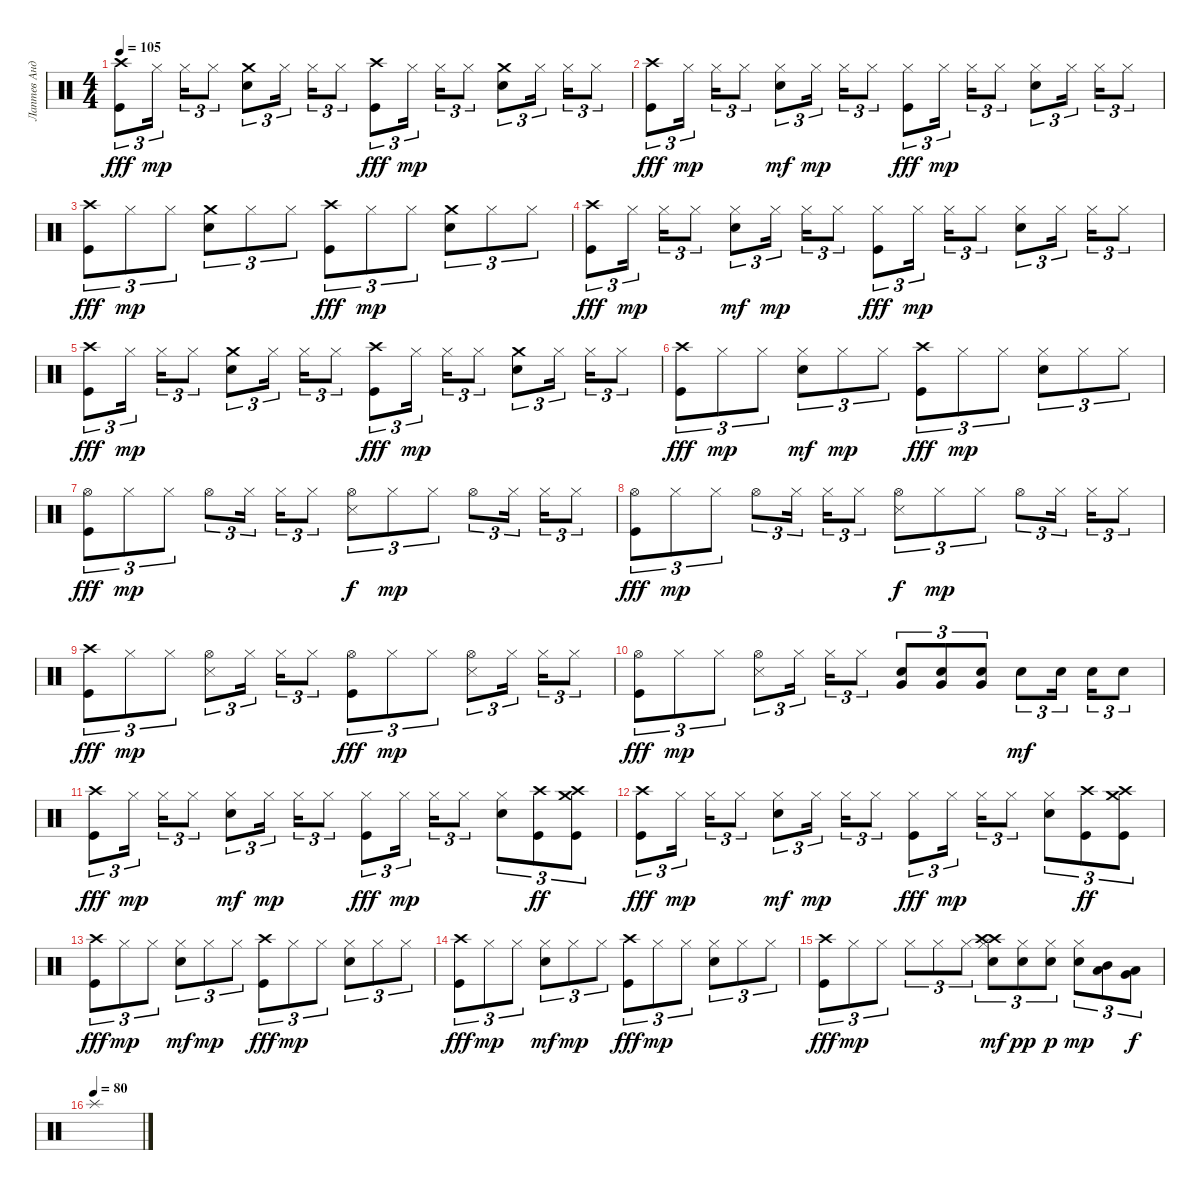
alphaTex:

\track ("Лаптев Андрей" "Лаптев Анд") {instrument percussion}
\staff {score}
\articulation defaults
\ts (4 4)
\tempo 105
\clef neutral
\ks c
("Crash high (hit)" "Kick (hit)").8{tu (3 2) dy fff} "Hi-Hat (closed)".16{tu (3 2) dy mp} "Hi-Hat (closed)".16{tu (3 2)} "Hi-Hat (closed)".8{tu (3 2)} ("Electric Snare (hit)" "Crash medium (hit)").8{tu (3 2)} "Hi-Hat (closed)".16{tu (3 2)} "Hi-Hat (closed)".16{tu (3 2)} "Hi-Hat (closed)".8{tu (3 2)} ("Crash high (hit)" "Kick (hit)").8{tu (3 2) dy fff} "Hi-Hat (closed)".16{tu (3 2) dy mp} "Hi-Hat (closed)".16{tu (3 2)} "Hi-Hat (closed)".8{tu (3 2)} ("Crash medium (hit)" "Electric Snare (hit)").8{tu (3 2)} "Hi-Hat (closed)".16{tu (3 2)} "Hi-Hat (closed)".16{tu (3 2)} "Hi-Hat (closed)".8{tu (3 2)} |
("Crash high (hit)" "Kick (hit)").8{tu (3 2) dy fff} "Hi-Hat (closed)".16{tu (3 2) dy mp} "Hi-Hat (closed)".16{tu (3 2)} "Hi-Hat (closed)".8{tu (3 2)} ("Hi-Hat (closed)" "Electric Snare (hit)").8{tu (3 2) dy mf} "Hi-Hat (closed)".16{tu (3 2) dy mp} "Hi-Hat (closed)".16{tu (3 2)} "Hi-Hat (closed)".8{tu (3 2)} ("Hi-Hat (closed)" "Kick (hit)").8{tu (3 2) dy fff} "Hi-Hat (closed)".16{tu (3 2) dy mp} "Hi-Hat (closed)".16{tu (3 2)} "Hi-Hat (closed)".8{tu (3 2)} ("Hi-Hat (closed)" "Electric Snare (hit)").8{tu (3 2)} "Hi-Hat (closed)".16{tu (3 2)} "Hi-Hat (closed)".16{tu (3 2)} "Hi-Hat (closed)".8{tu (3 2)} |
("Crash high (hit)" "Kick (hit)").8{tu (3 2) dy fff} "Hi-Hat (closed)".8{tu (3 2) dy mp} "Hi-Hat (closed)".8{tu (3 2)} ("Electric Snare (hit)" "Crash medium (hit)").8{tu (3 2)} "Hi-Hat (closed)".8{tu (3 2)} "Hi-Hat (closed)".8{tu (3 2)} ("Crash high (hit)" "Kick (hit)").8{tu (3 2) dy fff} "Hi-Hat (closed)".8{tu (3 2) dy mp} "Hi-Hat (closed)".8{tu (3 2)} ("Crash medium (hit)" "Electric Snare (hit)").8{tu (3 2)} "Hi-Hat (closed)".8{tu (3 2)} "Hi-Hat (closed)".8{tu (3 2)} |
("Crash high (hit)" "Kick (hit)").8{tu (3 2) dy fff} "Hi-Hat (closed)".16{tu (3 2) dy mp} "Hi-Hat (closed)".16{tu (3 2)} "Hi-Hat (closed)".8{tu (3 2)} ("Hi-Hat (closed)" "Electric Snare (hit)").8{tu (3 2) dy mf} "Hi-Hat (closed)".16{tu (3 2) dy mp} "Hi-Hat (closed)".16{tu (3 2)} "Hi-Hat (closed)".8{tu (3 2)} ("Hi-Hat (closed)" "Kick (hit)").8{tu (3 2) dy fff} "Hi-Hat (closed)".16{tu (3 2) dy mp} "Hi-Hat (closed)".16{tu (3 2)} "Hi-Hat (closed)".8{tu (3 2)} ("Hi-Hat (closed)" "Electric Snare (hit)").8{tu (3 2)} "Hi-Hat (closed)".16{tu (3 2)} "Hi-Hat (closed)".16{tu (3 2)} "Hi-Hat (closed)".8{tu (3 2)} |
("Crash high (hit)" "Kick (hit)").8{tu (3 2) dy fff} "Hi-Hat (closed)".16{tu (3 2) dy mp} "Hi-Hat (closed)".16{tu (3 2)} "Hi-Hat (closed)".8{tu (3 2)} ("Electric Snare (hit)" "Crash medium (hit)").8{tu (3 2)} "Hi-Hat (closed)".16{tu (3 2)} "Hi-Hat (closed)".16{tu (3 2)} "Hi-Hat (closed)".8{tu (3 2)} ("Crash high (hit)" "Kick (hit)").8{tu (3 2) dy fff} "Hi-Hat (closed)".16{tu (3 2) dy mp} "Hi-Hat (closed)".16{tu (3 2)} "Hi-Hat (closed)".8{tu (3 2)} ("Crash medium (hit)" "Electric Snare (hit)").8{tu (3 2)} "Hi-Hat (closed)".16{tu (3 2)} "Hi-Hat (closed)".16{tu (3 2)} "Hi-Hat (closed)".8{tu (3 2)} |
("Crash high (hit)" "Kick (hit)").8{tu (3 2) dy fff} "Hi-Hat (closed)".8{tu (3 2) dy mp} "Hi-Hat (closed)".8{tu (3 2)} ("Hi-Hat (closed)" "Electric Snare (hit)").8{tu (3 2) dy mf} "Hi-Hat (closed)".8{tu (3 2) dy mp} "Hi-Hat (closed)".8{tu (3 2)} ("Crash high (hit)" "Kick (hit)").8{tu (3 2) dy fff} "Hi-Hat (closed)".8{tu (3 2) dy mp} "Hi-Hat (closed)".8{tu (3 2)} ("Hi-Hat (closed)" "Electric Snare (hit)").8{tu (3 2)} "Hi-Hat (closed)".8{tu (3 2)} "Hi-Hat (closed)".8{tu (3 2)} |
("Hi-Hat (open)" "Kick (hit)").8{tu (3 2) dy fff} "Hi-Hat (closed)".8{tu (3 2) dy mp} "Hi-Hat (closed)".8{tu (3 2)} "Hi-Hat (open)".8{tu (3 2)} "Hi-Hat (closed)".16{tu (3 2)} "Hi-Hat (closed)".16{tu (3 2)} "Hi-Hat (closed)".8{tu (3 2)} ("Snare (side stick) 3" "Hi-Hat (open)").8{tu (3 2) dy f} "Hi-Hat (closed)".8{tu (3 2) dy mp} "Hi-Hat (closed)".8{tu (3 2)} "Hi-Hat (open)".8{tu (3 2)} "Hi-Hat (closed)".16{tu (3 2)} "Hi-Hat (closed)".16{tu (3 2)} "Hi-Hat (closed)".8{tu (3 2)} |
("Hi-Hat (open)" "Kick (hit)").8{tu (3 2) dy fff} "Hi-Hat (closed)".8{tu (3 2) dy mp} "Hi-Hat (closed)".8{tu (3 2)} "Hi-Hat (open)".8{tu (3 2)} "Hi-Hat (closed)".16{tu (3 2)} "Hi-Hat (closed)".16{tu (3 2)} "Hi-Hat (closed)".8{tu (3 2)} ("Snare (side stick) 3" "Hi-Hat (open)").8{tu (3 2) dy f} "Hi-Hat (closed)".8{tu (3 2) dy mp} "Hi-Hat (closed)".8{tu (3 2)} "Hi-Hat (open)".8{tu (3 2)} "Hi-Hat (closed)".16{tu (3 2)} "Hi-Hat (closed)".16{tu (3 2)} "Hi-Hat (closed)".8{tu (3 2)} |
("Crash high (hit)" "Kick (hit)").8{tu (3 2) dy fff} "Hi-Hat (closed)".8{tu (3 2) dy mp} "Hi-Hat (closed)".8{tu (3 2)} ("Hi-Hat (open)" "Snare (side stick) 3").8{tu (3 2)} "Hi-Hat (closed)".16{tu (3 2)} "Hi-Hat (closed)".16{tu (3 2)} "Hi-Hat (closed)".8{tu (3 2)} ("Hi-Hat (open)" "Kick (hit)").8{tu (3 2) dy fff} "Hi-Hat (closed)".8{tu (3 2) dy mp} "Hi-Hat (closed)".8{tu (3 2)} ("Snare (side stick) 3" "Hi-Hat (open)").8{tu (3 2)} "Hi-Hat (closed)".16{tu (3 2)} "Hi-Hat (closed)".16{tu (3 2)} "Hi-Hat (closed)".8{tu (3 2)} |
("Hi-Hat (open)" "Kick (hit)").8{tu (3 2) dy fff} "Hi-Hat (closed)".8{tu (3 2) dy mp} "Hi-Hat (closed)".8{tu (3 2)} ("Hi-Hat (open)" "Snare (side stick) 3").8{tu (3 2)} "Hi-Hat (closed)".16{tu (3 2)} "Hi-Hat (closed)".16{tu (3 2)} "Hi-Hat (closed)".8{tu (3 2)} ("Very Low Tom (hit)" "Electric Snare (hit)").8{tu (3 2)} ("Very Low Tom (hit)" "Electric Snare (hit)").8{tu (3 2)} ("Very Low Tom (hit)" "Electric Snare (hit)").8{tu (3 2)} "Electric Snare (hit)".8{tu (3 2) dy mf} "Electric Snare (hit)".16{tu (3 2)} "Electric Snare (hit)".16{tu (3 2)} "Electric Snare (hit)".8{tu (3 2)} |
("Crash high (hit)" "Kick (hit)").8{tu (3 2) dy fff} "Hi-Hat (closed)".16{tu (3 2) dy mp} "Hi-Hat (closed)".16{tu (3 2)} "Hi-Hat (closed)".8{tu (3 2)} ("Hi-Hat (closed)" "Electric Snare (hit)").8{tu (3 2) dy mf} "Hi-Hat (closed)".16{tu (3 2) dy mp} "Hi-Hat (closed)".16{tu (3 2)} "Hi-Hat (closed)".8{tu (3 2)} ("Hi-Hat (closed)" "Kick (hit)").8{tu (3 2) dy fff} "Hi-Hat (closed)".16{tu (3 2) dy mp} "Hi-Hat (closed)".16{tu (3 2)} "Hi-Hat (closed)".8{tu (3 2)} ("Hi-Hat (closed)" "Electric Snare (hit)").8{tu (3 2)} ("Crash high (hit)" "Kick (hit)").8{tu (3 2) dy ff} ("Crash high (hit)" "Crash medium (hit)" "Kick (hit)").8{tu (3 2)} |
("Crash high (hit)" "Kick (hit)").8{tu (3 2) dy fff} "Hi-Hat (closed)".16{tu (3 2) dy mp} "Hi-Hat (closed)".16{tu (3 2)} "Hi-Hat (closed)".8{tu (3 2)} ("Hi-Hat (closed)" "Electric Snare (hit)").8{tu (3 2) dy mf} "Hi-Hat (closed)".16{tu (3 2) dy mp} "Hi-Hat (closed)".16{tu (3 2)} "Hi-Hat (closed)".8{tu (3 2)} ("Hi-Hat (closed)" "Kick (hit)").8{tu (3 2) dy fff} "Hi-Hat (closed)".16{tu (3 2) dy mp} "Hi-Hat (closed)".16{tu (3 2)} "Hi-Hat (closed)".8{tu (3 2)} ("Hi-Hat (closed)" "Electric Snare (hit)").8{tu (3 2)} ("Crash high (hit)" "Kick (hit)").8{tu (3 2) dy ff} ("Crash high (hit)" "Crash medium (hit)" "Kick (hit)").8{tu (3 2)} |
("Crash high (hit)" "Kick (hit)").8{tu (3 2) dy fff} "Hi-Hat (closed)".8{tu (3 2) dy mp} "Hi-Hat (closed)".8{tu (3 2)} ("Hi-Hat (closed)" "Electric Snare (hit)").8{tu (3 2) dy mf} "Hi-Hat (closed)".8{tu (3 2) dy mp} "Hi-Hat (closed)".8{tu (3 2)} ("Crash high (hit)" "Kick (hit)").8{tu (3 2) dy fff} "Hi-Hat (closed)".8{tu (3 2) dy mp} "Hi-Hat (closed)".8{tu (3 2)} ("Hi-Hat (closed)" "Electric Snare (hit)").8{tu (3 2)} "Hi-Hat (closed)".8{tu (3 2)} "Hi-Hat (closed)".8{tu (3 2)} |
("Crash high (hit)" "Kick (hit)").8{tu (3 2) dy fff} "Hi-Hat (closed)".8{tu (3 2) dy mp} "Hi-Hat (closed)".8{tu (3 2)} ("Hi-Hat (closed)" "Electric Snare (hit)").8{tu (3 2) dy mf} "Hi-Hat (closed)".8{tu (3 2) dy mp} "Hi-Hat (closed)".8{tu (3 2)} ("Crash high (hit)" "Kick (hit)").8{tu (3 2) dy fff} "Hi-Hat (closed)".8{tu (3 2) dy mp} "Hi-Hat (closed)".8{tu (3 2)} ("Hi-Hat (closed)" "Electric Snare (hit)").8{tu (3 2)} "Hi-Hat (closed)".8{tu (3 2)} "Hi-Hat (closed)".8{tu (3 2)} |
("Crash high (hit)" "Kick (hit)").8{tu (3 2) dy fff} "Hi-Hat (closed)".8{tu (3 2) dy mp} "Hi-Hat (closed)".8{tu (3 2)} "Hi-Hat (closed)".8{tu (3 2)} "Hi-Hat (closed)".8{tu (3 2)} "Hi-Hat (closed)".8{tu (3 2)} ("Hi-Hat (closed)" "Crash high (hit)" "Crash high (hit)" "Electric Snare (hit)").8{tu (3 2) dy mf} ("Electric Snare (hit)" "Hi-Hat (closed)").8{tu (3 2) dy pp} ("Hi-Hat (closed)" "Electric Snare (hit)").8{tu (3 2) dy p} ("Hi-Hat (closed)" "Electric Snare (hit)").8{tu (3 2) dy mp} ("Low Tom (hit)" "Mid Tom (hit)").8{tu (3 2)} ("Low Tom (hit)" "Very Low Tom (hit)").8{tu (3 2) dy f} |
\tempo (80)
"Splash (hit)".1
